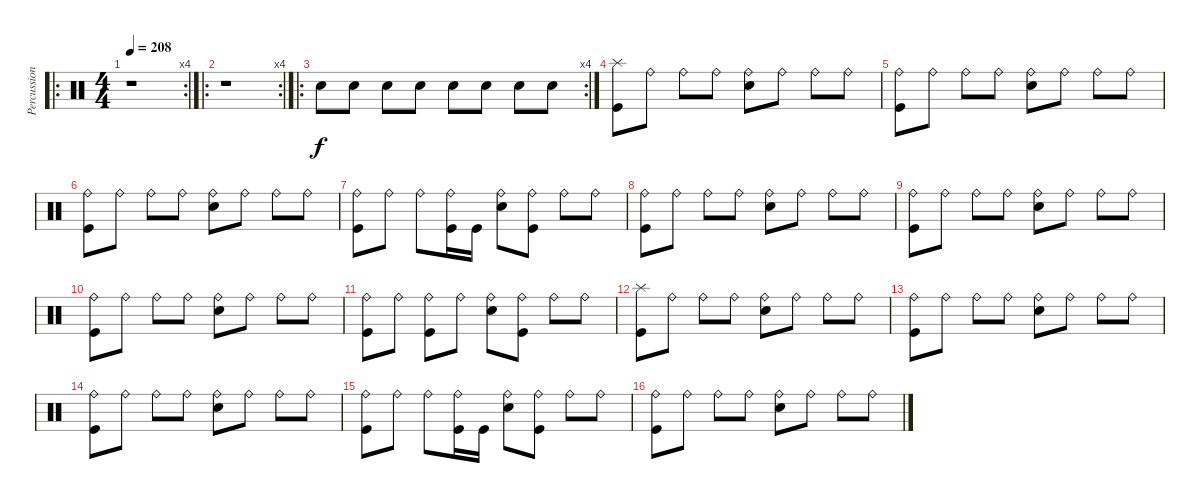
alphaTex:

\track ("Percussions" "Percussion") {instrument percussion}
\staff {score}
\articulation defaults
\ro
\rc 4
\ts (4 4)
\tempo 208
\clef neutral
\ks c
r.1{dy f} |
\ro
\rc 4
r.1 |
\ro
\rc 4 "Electric Snare (hit)".8 "Electric Snare (hit)".8 "Electric Snare (hit)".8 "Electric Snare (hit)".8 "Electric Snare (hit)".8 "Electric Snare (hit)".8 "Electric Snare (hit)".8 "Electric Snare (hit)".8
|
("Kick (hit)" "Splash (hit)").8 "Ride (bell)".8 "Ride (bell)".8 "Ride (bell)".8 ("Electric Snare (hit)" "Ride (bell)").8 "Ride (bell)".8 "Ride (bell)".8 "Ride (bell)".8 |
("Kick (hit)" "Ride (bell)").8 "Ride (bell)".8 "Ride (bell)".8 "Ride (bell)".8 ("Electric Snare (hit)" "Ride (bell)").8 "Ride (bell)".8 "Ride (bell)".8 "Ride (bell)".8 |
("Kick (hit)" "Ride (bell)").8 "Ride (bell)".8 "Ride (bell)".8 "Ride (bell)".8 ("Electric Snare (hit)" "Ride (bell)").8 "Ride (bell)".8 "Ride (bell)".8 "Ride (bell)".8 |
("Kick (hit)" "Ride (bell)").8 "Ride (bell)".8 "Ride (bell)".8 ("Kick (hit)" "Ride (bell)").16 "Kick (hit)".16 ("Electric Snare (hit)" "Ride (bell)").8 ("Kick (hit)" "Ride (bell)").8 "Ride (bell)".8 "Ride (bell)".8 |
("Kick (hit)" "Ride (bell)").8 "Ride (bell)".8 "Ride (bell)".8 "Ride (bell)".8 ("Electric Snare (hit)" "Ride (bell)").8 "Ride (bell)".8 "Ride (bell)".8 "Ride (bell)".8 |
("Kick (hit)" "Ride (bell)").8 "Ride (bell)".8 "Ride (bell)".8 "Ride (bell)".8 ("Electric Snare (hit)" "Ride (bell)").8 "Ride (bell)".8 "Ride (bell)".8 "Ride (bell)".8 |
("Kick (hit)" "Ride (bell)").8 "Ride (bell)".8 "Ride (bell)".8 "Ride (bell)".8 ("Electric Snare (hit)" "Ride (bell)").8 "Ride (bell)".8 "Ride (bell)".8 "Ride (bell)".8 |
("Kick (hit)" "Ride (bell)").8 "Ride (bell)".8 ("Kick (hit)" "Ride (bell)").8 "Ride (bell)".8 ("Electric Snare (hit)" "Ride (bell)").8 ("Kick (hit)" "Ride (bell)").8 "Ride (bell)".8 "Ride (bell)".8 |
("Kick (hit)" "Splash (hit)").8 "Ride (bell)".8 "Ride (bell)".8 "Ride (bell)".8 ("Electric Snare (hit)" "Ride (bell)").8 "Ride (bell)".8 "Ride (bell)".8 "Ride (bell)".8 |
("Kick (hit)" "Ride (bell)").8 "Ride (bell)".8 "Ride (bell)".8 "Ride (bell)".8 ("Electric Snare (hit)" "Ride (bell)").8 "Ride (bell)".8 "Ride (bell)".8 "Ride (bell)".8 |
("Kick (hit)" "Ride (bell)").8 "Ride (bell)".8 "Ride (bell)".8 "Ride (bell)".8 ("Electric Snare (hit)" "Ride (bell)").8 "Ride (bell)".8 "Ride (bell)".8 "Ride (bell)".8 |
("Kick (hit)" "Ride (bell)").8 "Ride (bell)".8 "Ride (bell)".8 ("Kick (hit)" "Ride (bell)").16 "Kick (hit)".16 ("Electric Snare (hit)" "Ride (bell)").8 ("Kick (hit)" "Ride (bell)").8 "Ride (bell)".8 "Ride (bell)".8 |
("Kick (hit)" "Ride (bell)").8 "Ride (bell)".8 "Ride (bell)".8 "Ride (bell)".8 ("Electric Snare (hit)" "Ride (bell)").8 "Ride (bell)".8 "Ride (bell)".8 "Ride (bell)".8
